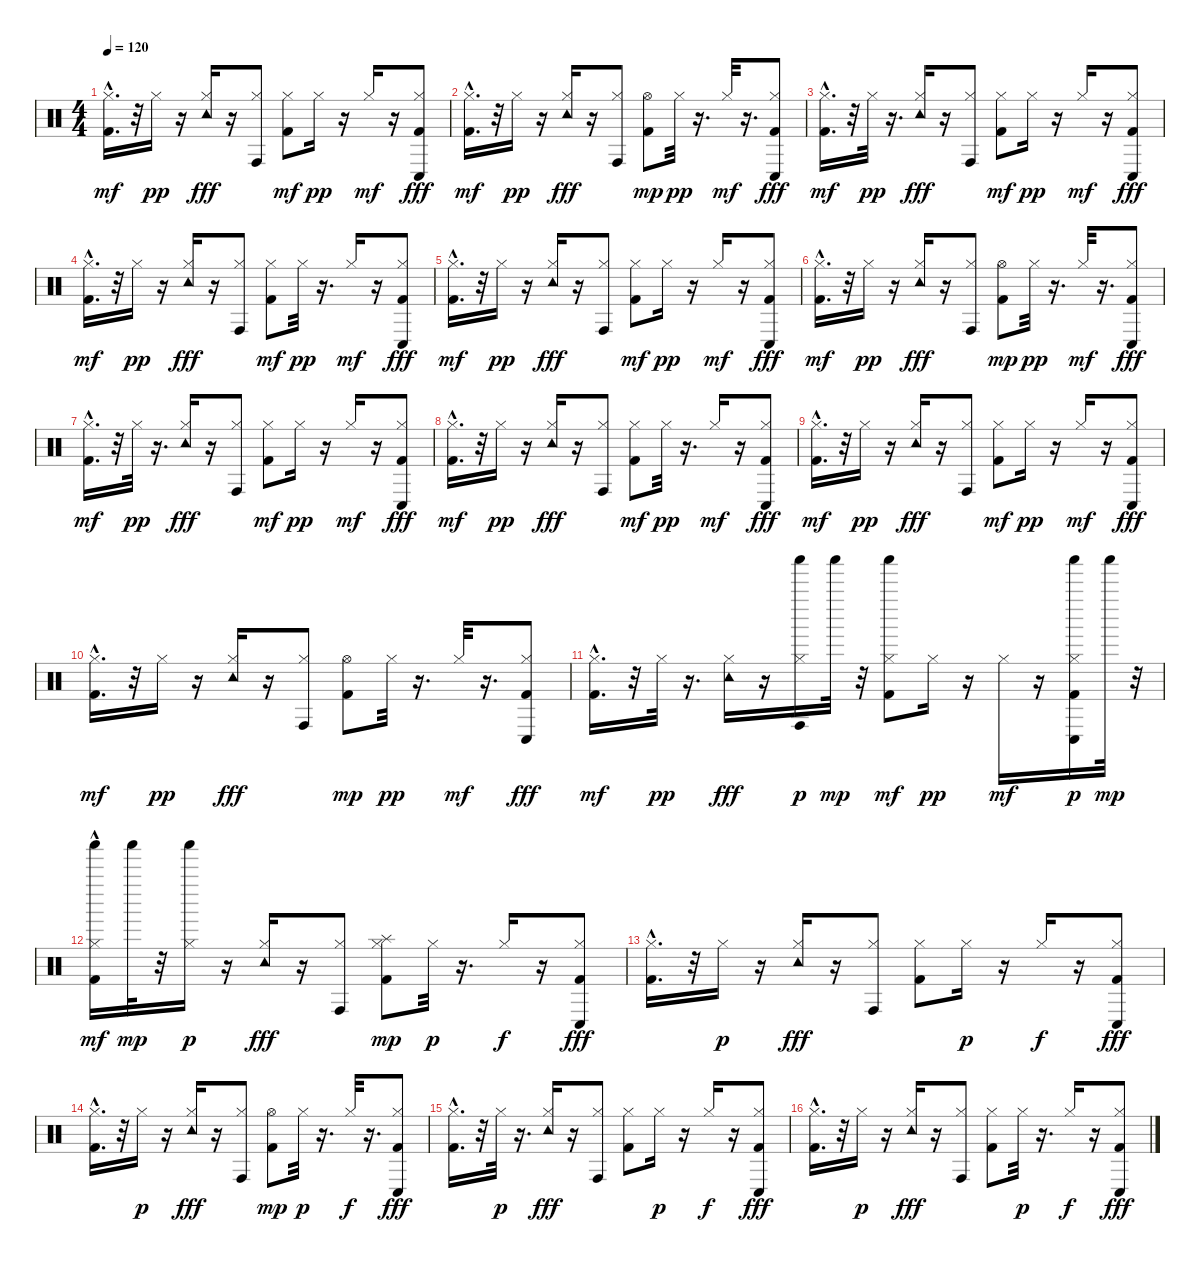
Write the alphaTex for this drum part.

\track "" {instrument percussion}
\staff {score}
\articulation defaults
\ts (4 4)
\tempo 120
\clef neutral
\ks c
("Kick (hit) 2"{hac} "Hi-Hat (closed)").16{d dy mf} r.32 "Hi-Hat (closed)".16{dy pp} r.16 ("Hi-Hat (closed)" "Tambourine (hit)").16{dy fff} r.16 ("Hi-Hat (closed)" "Conga high (hit)").8 ("Kick (hit) 2" "Hi-Hat (closed)").8{dy mf} "Hi-Hat (closed)".16{dy pp} r.16 "Hi-Hat (closed)".16{dy mf} r.16 ("Kick (hit) 2" "Hi-Hat (closed)" "Conga low (hit)").8{dy fff} |
("Kick (hit) 2"{hac} "Hi-Hat (closed)").16{d dy mf} r.32 "Hi-Hat (closed)".16{dy pp} r.16 ("Hi-Hat (closed)" "Tambourine (hit)").16{dy fff} r.16 ("Hi-Hat (closed)" "Conga high (hit)").8 ("Kick (hit) 2" "Hi-Hat (open)").8{dy mp} "Hi-Hat (closed)".32{dy pp} r.16{d} "Hi-Hat (closed)".32{dy mf} r.16{d} ("Kick (hit) 2" "Hi-Hat (closed)" "Conga low (hit)").8{dy fff} |
("Kick (hit) 2"{hac} "Hi-Hat (closed)").16{d dy mf} r.32 "Hi-Hat (closed)".32{dy pp} r.16{d} ("Hi-Hat (closed)" "Tambourine (hit)").16{dy fff} r.16 ("Hi-Hat (closed)" "Conga high (hit)").8 ("Kick (hit) 2" "Hi-Hat (closed)").8{dy mf} "Hi-Hat (closed)".16{dy pp} r.16 "Hi-Hat (closed)".16{dy mf} r.16 ("Kick (hit) 2" "Hi-Hat (closed)" "Conga low (hit)").8{dy fff} |
("Kick (hit) 2"{hac} "Hi-Hat (closed)").16{d dy mf} r.32 "Hi-Hat (closed)".16{dy pp} r.16 ("Hi-Hat (closed)" "Tambourine (hit)").16{dy fff} r.16 ("Hi-Hat (closed)" "Conga high (hit)").8 ("Kick (hit) 2" "Hi-Hat (closed)").8{dy mf} "Hi-Hat (closed)".32{dy pp} r.16{d} "Hi-Hat (closed)".16{dy mf} r.16 ("Kick (hit) 2" "Hi-Hat (closed)" "Conga low (hit)").8{dy fff} |
("Kick (hit) 2"{hac} "Hi-Hat (closed)").16{d dy mf} r.32 "Hi-Hat (closed)".16{dy pp} r.16 ("Hi-Hat (closed)" "Tambourine (hit)").16{dy fff} r.16 ("Hi-Hat (closed)" "Conga high (hit)").8 ("Kick (hit) 2" "Hi-Hat (closed)").8{dy mf} "Hi-Hat (closed)".16{dy pp} r.16 "Hi-Hat (closed)".16{dy mf} r.16 ("Kick (hit) 2" "Hi-Hat (closed)" "Conga low (hit)").8{dy fff} |
("Kick (hit) 2"{hac} "Hi-Hat (closed)").16{d dy mf} r.32 "Hi-Hat (closed)".16{dy pp} r.16 ("Hi-Hat (closed)" "Tambourine (hit)").16{dy fff} r.16 ("Hi-Hat (closed)" "Conga high (hit)").8 ("Kick (hit) 2" "Hi-Hat (open)").8{dy mp} "Hi-Hat (closed)".32{dy pp} r.16{d} "Hi-Hat (closed)".32{dy mf} r.16{d} ("Kick (hit) 2" "Hi-Hat (closed)" "Conga low (hit)").8{dy fff} |
("Kick (hit) 2"{hac} "Hi-Hat (closed)").16{d dy mf} r.32 "Hi-Hat (closed)".32{dy pp} r.16{d} ("Hi-Hat (closed)" "Tambourine (hit)").16{dy fff} r.16 ("Hi-Hat (closed)" "Conga high (hit)").8 ("Kick (hit) 2" "Hi-Hat (closed)").8{dy mf} "Hi-Hat (closed)".16{dy pp} r.16 "Hi-Hat (closed)".16{dy mf} r.16 ("Kick (hit) 2" "Hi-Hat (closed)" "Conga low (hit)").8{dy fff} |
("Kick (hit) 2"{hac} "Hi-Hat (closed)").16{d dy mf} r.32 "Hi-Hat (closed)".16{dy pp} r.16 ("Hi-Hat (closed)" "Tambourine (hit)").16{dy fff} r.16 ("Hi-Hat (closed)" "Conga high (hit)").8 ("Kick (hit) 2" "Hi-Hat (closed)").8{dy mf} "Hi-Hat (closed)".32{dy pp} r.16{d} "Hi-Hat (closed)".16{dy mf} r.16 ("Kick (hit) 2" "Hi-Hat (closed)" "Conga low (hit)").8{dy fff} |
("Kick (hit) 2"{hac} "Hi-Hat (closed)").16{d dy mf} r.32 "Hi-Hat (closed)".16{dy pp} r.16 ("Hi-Hat (closed)" "Tambourine (hit)").16{dy fff} r.16 ("Hi-Hat (closed)" "Conga high (hit)").8 ("Kick (hit) 2" "Hi-Hat (closed)").8{dy mf} "Hi-Hat (closed)".16{dy pp} r.16 "Hi-Hat (closed)".16{dy mf} r.16 ("Kick (hit) 2" "Hi-Hat (closed)" "Conga low (hit)").8{dy fff} |
("Kick (hit) 2"{hac} "Hi-Hat (closed)").16{d dy mf} r.32 "Hi-Hat (closed)".16{dy pp} r.16 ("Hi-Hat (closed)" "Tambourine (hit)").16{dy fff} r.16 ("Hi-Hat (closed)" "Conga high (hit)").8 ("Kick (hit) 2" "Hi-Hat (open)").8{dy mp} "Hi-Hat (closed)".32{dy pp} r.16{d} "Hi-Hat (closed)".32{dy mf} r.16{d} ("Kick (hit) 2" "Hi-Hat (closed)" "Conga low (hit)").8{dy fff} |
("Kick (hit) 2"{hac} "Hi-Hat (closed)").16{d dy mf} r.32 "Hi-Hat (closed)".32{dy pp} r.16{d} ("Hi-Hat (closed)" "Tambourine (hit)").16{dy fff} r.16 ("Hi-Hat (closed)" "Conga high (hit)" "Shaker (hit)").16{dy p} "Shaker (hit)".32{dy mp} r.32 ("Kick (hit) 2" "Hi-Hat (closed)" "Shaker (hit)").8{dy mf} "Hi-Hat (closed)".16{dy pp} r.16 "Hi-Hat (closed)".16{dy mf} r.16 ("Kick (hit) 2" "Hi-Hat (closed)" "Conga low (hit)" "Shaker (hit)").16{dy p} "Shaker (hit)".32{dy mp} r.32 |
("Kick (hit) 2"{hac} "Hi-Hat (closed)" "Shaker (hit)").16{dy mf} "Shaker (hit)".32{dy mp} r.32 ("Hi-Hat (closed)" "Shaker (hit)").16{dy p} r.16 ("Hi-Hat (closed)" "Tambourine (hit)").16{dy fff} r.16 ("Hi-Hat (closed)" "Conga high (hit)").8 ("Kick (hit) 2" "Hi-Hat (closed)" "Splash (hit)").8{dy mp} "Hi-Hat (closed)".32{dy p} r.16{d} "Hi-Hat (closed)".16{dy f} r.16 ("Kick (hit) 2" "Hi-Hat (closed)" "Conga low (hit)").8{dy fff} |
("Kick (hit) 2"{hac} "Hi-Hat (closed)").16{d} r.32 "Hi-Hat (closed)".16{dy p} r.16 ("Hi-Hat (closed)" "Tambourine (hit)").16{dy fff} r.16 ("Hi-Hat (closed)" "Conga high (hit)").8 ("Kick (hit) 2" "Hi-Hat (closed)").8 "Hi-Hat (closed)".16{dy p} r.16 "Hi-Hat (closed)".16{dy f} r.16 ("Kick (hit) 2" "Hi-Hat (closed)" "Conga low (hit)").8{dy fff} |
("Kick (hit) 2"{hac} "Hi-Hat (closed)").16{d} r.32 "Hi-Hat (closed)".16{dy p} r.16 ("Hi-Hat (closed)" "Tambourine (hit)").16{dy fff} r.16 ("Hi-Hat (closed)" "Conga high (hit)").8 ("Kick (hit) 2" "Hi-Hat (open)").8{dy mp} "Hi-Hat (closed)".32{dy p} r.16{d} "Hi-Hat (closed)".32{dy f} r.16{d} ("Kick (hit) 2" "Hi-Hat (closed)" "Conga low (hit)").8{dy fff} |
("Kick (hit) 2"{hac} "Hi-Hat (closed)").16{d} r.32 "Hi-Hat (closed)".32{dy p} r.16{d} ("Hi-Hat (closed)" "Tambourine (hit)").16{dy fff} r.16 ("Hi-Hat (closed)" "Conga high (hit)").8 ("Kick (hit) 2" "Hi-Hat (closed)").8 "Hi-Hat (closed)".16{dy p} r.16 "Hi-Hat (closed)".16{dy f} r.16 ("Kick (hit) 2" "Hi-Hat (closed)" "Conga low (hit)").8{dy fff} |
("Kick (hit) 2"{hac} "Hi-Hat (closed)").16{d} r.32 "Hi-Hat (closed)".16{dy p} r.16 ("Hi-Hat (closed)" "Tambourine (hit)").16{dy fff} r.16 ("Hi-Hat (closed)" "Conga high (hit)").8 ("Kick (hit) 2" "Hi-Hat (closed)").8 "Hi-Hat (closed)".32{dy p} r.16{d} "Hi-Hat (closed)".16{dy f} r.16 ("Kick (hit) 2" "Hi-Hat (closed)" "Conga low (hit)").8{dy fff}
